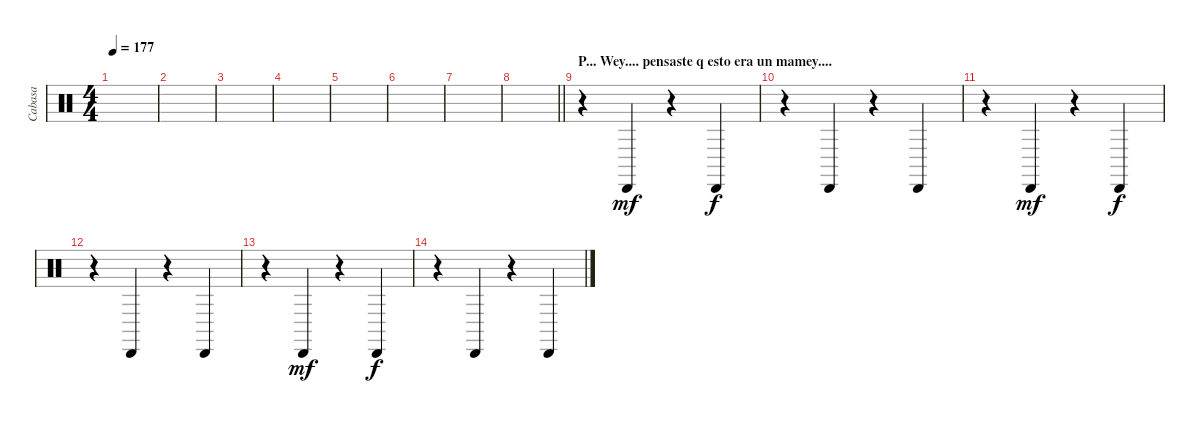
\track ("Cabasa" "Cabasa") {instrument percussion}
\staff {score}
\articulation defaults
\ts (4 4)
\tempo 177
\clef neutral
\ks c
|
|
|
|
|
|
|
\barLineRight lightlight
|
\section ("" "P... Wey.... pensaste q esto era un mamey....")
r.4 "Cabasa (hit)".4{dy mf} r.4 "Cabasa (hit)".4{dy f} |
r.4 "Cabasa (hit)".4 r.4 "Cabasa (hit)".4 |
r.4 "Cabasa (hit)".4{dy mf} r.4 "Cabasa (hit)".4{dy f} |
r.4 "Cabasa (hit)".4 r.4 "Cabasa (hit)".4 |
r.4 "Cabasa (hit)".4{dy mf} r.4 "Cabasa (hit)".4{dy f} |
r.4 "Cabasa (hit)".4 r.4 "Cabasa (hit)".4
